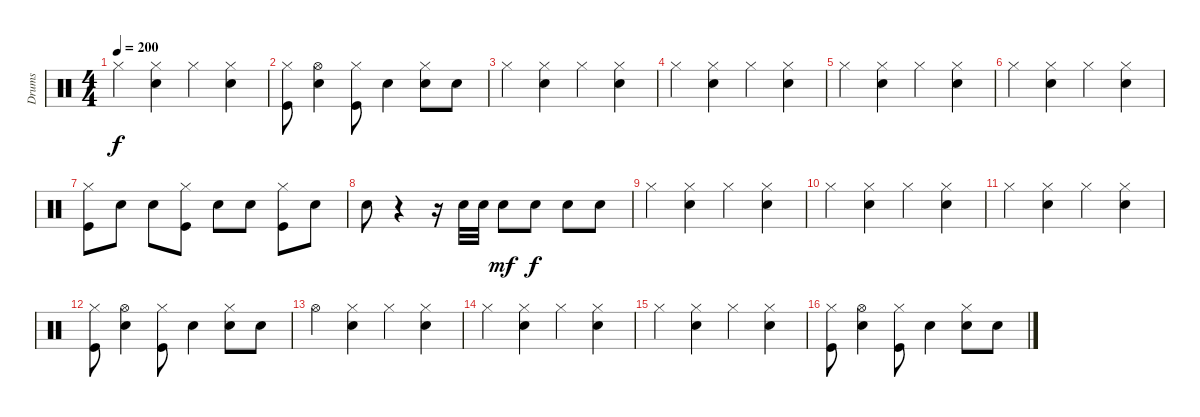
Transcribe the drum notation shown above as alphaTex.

\track ("Drums" "Drums") {instrument percussion}
\staff {score}
\articulation defaults
\ts (4 4)
\tempo 200
\clef neutral
\ks c "Hi-Hat (closed)".4{dy f}
("Snare (hit) 2" "Hi-Hat (closed)").4 "Hi-Hat (closed)".4 ("Snare (hit) 2" "Hi-Hat (closed)").4 |
("Kick (hit)" "Hi-Hat (closed)").8 ("Hi-Hat (open)" "Electric Snare (hit)").4 ("Kick (hit)" "Hi-Hat (closed)").8 "Electric Snare (hit)".4 ("Electric Snare (hit)" "Hi-Hat (closed)").8 "Electric Snare (hit)".8 |
"Hi-Hat (closed)".4 ("Snare (hit) 2" "Hi-Hat (closed)").4 "Hi-Hat (closed)".4 ("Snare (hit) 2" "Hi-Hat (closed)").4 |
"Hi-Hat (closed)".4 ("Snare (hit) 2" "Hi-Hat (closed)").4 "Hi-Hat (closed)".4 ("Snare (hit) 2" "Hi-Hat (closed)").4 |
"Hi-Hat (closed)".4 ("Snare (hit) 2" "Hi-Hat (closed)").4 "Hi-Hat (closed)".4 ("Snare (hit) 2" "Hi-Hat (closed)").4 |
"Hi-Hat (closed)".4 ("Snare (hit) 2" "Hi-Hat (closed)").4 "Hi-Hat (closed)".4 ("Snare (hit) 2" "Hi-Hat (closed)").4 |
("Hi-Hat (closed)" "Kick (hit)").8 "Electric Snare (hit)".8 "Electric Snare (hit)".8 ("Hi-Hat (closed)" "Kick (hit)").8 "Electric Snare (hit)".8 "Electric Snare (hit)".8 ("Hi-Hat (closed)" "Kick (hit)").8 "Electric Snare (hit)".8 |
"Electric Snare (hit)".8 r.4 r.16 "Electric Snare (hit)".32 "Electric Snare (hit)".32 "Electric Snare (hit)".8{dy mf} "Electric Snare (hit)".8{dy f} "Electric Snare (hit)".8 "Electric Snare (hit)".8 |
"Hi-Hat (closed)".4 ("Snare (hit) 2" "Hi-Hat (closed)").4 "Hi-Hat (closed)".4 ("Snare (hit) 2" "Hi-Hat (closed)").4 |
"Hi-Hat (closed)".4 ("Snare (hit) 2" "Hi-Hat (closed)").4 "Hi-Hat (closed)".4 ("Snare (hit) 2" "Hi-Hat (closed)").4 |
"Hi-Hat (closed)".4 ("Snare (hit) 2" "Hi-Hat (closed)").4 "Hi-Hat (closed)".4 ("Snare (hit) 2" "Hi-Hat (closed)").4 |
("Kick (hit)" "Hi-Hat (closed)").8 ("Hi-Hat (open)" "Electric Snare (hit)").4 ("Kick (hit)" "Hi-Hat (closed)").8 "Electric Snare (hit)".4 ("Electric Snare (hit)" "Hi-Hat (closed)").8 "Electric Snare (hit)".8 |
"Hi-Hat (open)".4 ("Snare (hit) 2" "Hi-Hat (closed)").4 "Hi-Hat (closed)".4 ("Snare (hit) 2" "Hi-Hat (closed)").4 |
"Hi-Hat (closed)".4 ("Snare (hit) 2" "Hi-Hat (closed)").4 "Hi-Hat (closed)".4 ("Snare (hit) 2" "Hi-Hat (closed)").4 |
"Hi-Hat (closed)".4 ("Snare (hit) 2" "Hi-Hat (closed)").4 "Hi-Hat (closed)".4 ("Snare (hit) 2" "Hi-Hat (closed)").4 |
("Kick (hit)" "Hi-Hat (closed)").8 ("Hi-Hat (open)" "Electric Snare (hit)").4 ("Kick (hit)" "Hi-Hat (closed)").8 "Electric Snare (hit)".4 ("Electric Snare (hit)" "Hi-Hat (closed)").8 "Electric Snare (hit)".8
